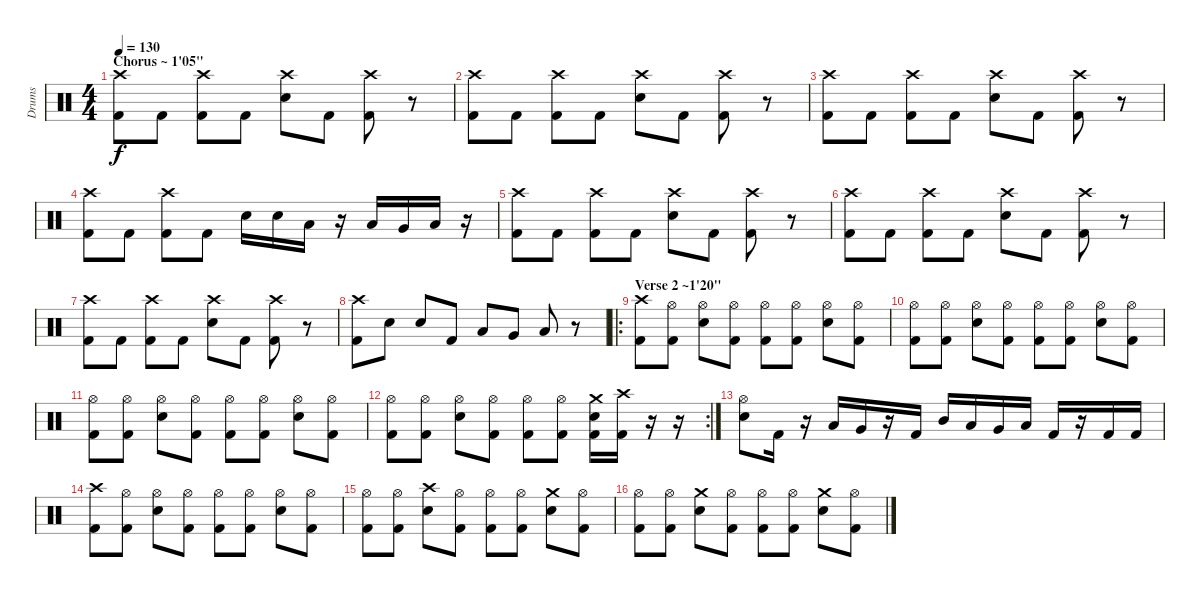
\track ("Drums" "Drums") {instrument percussion}
\staff {score}
\articulation defaults
\ts (4 4)
\section ("" "Chorus ~ 1'05\"")
\tempo 130
\clef neutral
\ks c
("Crash high (hit)" "Kick (hit) 2").8{dy f} "Kick (hit) 2".8 ("Crash high (hit)" "Kick (hit) 2").8 "Kick (hit) 2".8 ("Crash high (hit)" "Electric Snare (hit)").8 "Kick (hit) 2".8 ("Crash high (hit)" "Kick (hit) 2").8 r.8 |
("Crash high (hit)" "Kick (hit) 2").8 "Kick (hit) 2".8 ("Crash high (hit)" "Kick (hit) 2").8 "Kick (hit) 2".8 ("Crash high (hit)" "Electric Snare (hit)").8 "Kick (hit) 2".8 ("Crash high (hit)" "Kick (hit) 2").8 r.8 |
("Crash high (hit)" "Kick (hit) 2").8 "Kick (hit) 2".8 ("Crash high (hit)" "Kick (hit) 2").8 "Kick (hit) 2".8 ("Crash high (hit)" "Electric Snare (hit)").8 "Kick (hit) 2".8 ("Crash high (hit)" "Kick (hit) 2").8 r.8 |
("Crash high (hit)" "Kick (hit) 2").8 "Kick (hit) 2".8 ("Crash high (hit)" "Kick (hit) 2").8 "Kick (hit) 2".8 "Electric Snare (hit)".16 "Electric Snare (hit)".16 "Low Floor Tom (hit)".16 r.16 "Low Tom (hit)".16 "Very Low Tom (hit)".16 "Low Floor Tom (hit)".16 r.16 |
("Crash high (hit)" "Kick (hit) 2").8 "Kick (hit) 2".8 ("Crash high (hit)" "Kick (hit) 2").8 "Kick (hit) 2".8 ("Crash high (hit)" "Electric Snare (hit)").8 "Kick (hit) 2".8 ("Crash high (hit)" "Kick (hit) 2").8 r.8 |
("Crash high (hit)" "Kick (hit) 2").8 "Kick (hit) 2".8 ("Crash high (hit)" "Kick (hit) 2").8 "Kick (hit) 2".8 ("Crash high (hit)" "Electric Snare (hit)").8 "Kick (hit) 2".8 ("Crash high (hit)" "Kick (hit) 2").8 r.8 |
("Crash high (hit)" "Kick (hit) 2").8 "Kick (hit) 2".8 ("Crash high (hit)" "Kick (hit) 2").8 "Kick (hit) 2".8 ("Crash high (hit)" "Electric Snare (hit)").8 "Kick (hit) 2".8 ("Crash high (hit)" "Kick (hit) 2").8 r.8 |
("Crash high (hit)" "Kick (hit) 2").8 "Electric Snare (hit)".8 "Electric Snare (hit)".8 "Kick (hit) 2".8 "Low Tom (hit)".8 "Very Low Tom (hit)".8 "Low Floor Tom (hit)".8 r.8 |
\ro
\section ("" "Verse 2 ~1'20\"")
("Crash high (hit)" "Kick (hit) 2").8 ("Hi-Hat (open)" "Kick (hit) 2").8 ("Hi-Hat (open)" "Electric Snare (hit)").8 ("Hi-Hat (open)" "Kick (hit) 2").8 ("Hi-Hat (open)" "Kick (hit) 2").8 ("Hi-Hat (open)" "Kick (hit) 2").8 ("Hi-Hat (open)" "Electric Snare (hit)").8 ("Hi-Hat (open)" "Kick (hit) 2").8 |
("Hi-Hat (open)" "Kick (hit) 2").8 ("Hi-Hat (open)" "Kick (hit) 2").8 ("Hi-Hat (open)" "Electric Snare (hit)").8 ("Hi-Hat (open)" "Kick (hit) 2").8 ("Hi-Hat (open)" "Kick (hit) 2").8 ("Hi-Hat (open)" "Kick (hit) 2").8 ("Hi-Hat (open)" "Electric Snare (hit)").8 ("Hi-Hat (open)" "Kick (hit) 2").8 |
("Hi-Hat (open)" "Kick (hit) 2").8 ("Hi-Hat (open)" "Kick (hit) 2").8 ("Hi-Hat (open)" "Electric Snare (hit)").8 ("Hi-Hat (open)" "Kick (hit) 2").8 ("Hi-Hat (open)" "Kick (hit) 2").8 ("Hi-Hat (open)" "Kick (hit) 2").8 ("Hi-Hat (open)" "Electric Snare (hit)").8 ("Hi-Hat (open)" "Kick (hit) 2").8 |
\rc 2
("Hi-Hat (open)" "Kick (hit) 2").8 ("Hi-Hat (open)" "Kick (hit) 2").8 ("Hi-Hat (open)" "Electric Snare (hit)").8 ("Hi-Hat (open)" "Kick (hit) 2").8 ("Hi-Hat (open)" "Kick (hit) 2").8 ("Hi-Hat (open)" "Kick (hit) 2").8 ("Kick (hit) 2" "Electric Snare (hit)" "Crash medium (hit)").16 ("Kick (hit) 2" "Crash high (hit)").16 r.16 r.16 |
("Electric Snare (hit)" "Hi-Hat (open)").8 "Kick (hit) 2".16 r.16 "Low Tom (hit)".16 "Very Low Tom (hit)".16 r.16 "Kick (hit) 2".16 "Mid Tom (hit)".16 "Low Tom (hit)".16 "Very Low Tom (hit)".16 "Low Floor Tom (hit)".16 "Kick (hit) 2".16 r.16 "Kick (hit) 2".16 "Kick (hit) 2".16 |
("Crash high (hit)" "Kick (hit) 2").8 ("Hi-Hat (open)" "Kick (hit) 2").8 ("Hi-Hat (open)" "Electric Snare (hit)").8 ("Hi-Hat (open)" "Kick (hit) 2").8 ("Hi-Hat (open)" "Kick (hit) 2").8 ("Hi-Hat (open)" "Kick (hit) 2").8 ("Hi-Hat (open)" "Electric Snare (hit)").8 ("Hi-Hat (open)" "Kick (hit) 2").8 |
("Hi-Hat (open)" "Kick (hit) 2").8 ("Hi-Hat (open)" "Kick (hit) 2").8 ("Crash high (hit)" "Electric Snare (hit)").8 ("Hi-Hat (open)" "Kick (hit) 2").8 ("Hi-Hat (open)" "Kick (hit) 2").8 ("Hi-Hat (open)" "Kick (hit) 2").8 ("Crash medium (hit)" "Electric Snare (hit)").8 ("Hi-Hat (open)" "Kick (hit) 2").8 |
("Hi-Hat (open)" "Kick (hit) 2").8 ("Hi-Hat (open)" "Kick (hit) 2").8 ("Crash medium (hit)" "Electric Snare (hit)").8 ("Hi-Hat (open)" "Kick (hit) 2").8 ("Hi-Hat (open)" "Kick (hit) 2").8 ("Hi-Hat (open)" "Kick (hit) 2").8 ("Crash medium (hit)" "Electric Snare (hit)").8 ("Hi-Hat (open)" "Kick (hit) 2").8
